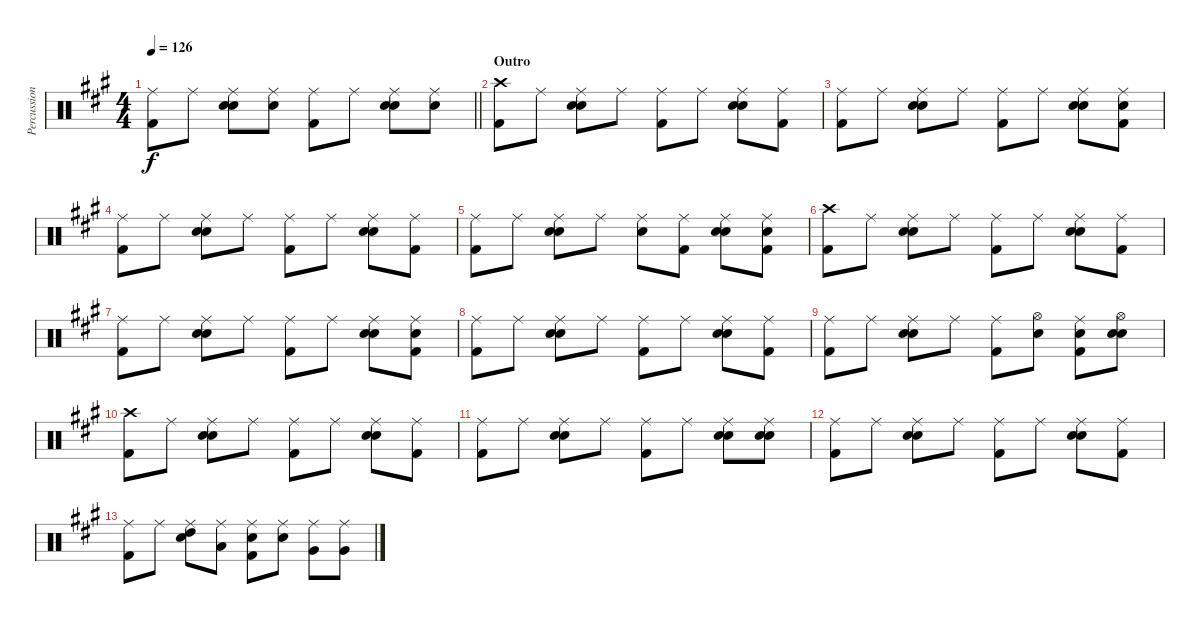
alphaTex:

\track ("Percussion" "Percussion") {instrument percussion}
\staff {score}
\articulation defaults
\ts (4 4)
\tempo 126
\clef neutral
\barLineRight lightlight
\ks a
("Ride (middle)" "Kick (hit) 2").8{dy f} "Ride (middle)".8 ("Ride (middle)" "Hand Clap (hit)" "Snare (hit) 2").8 ("Ride (middle)" "Hand Clap (hit)").8 ("Ride (middle)" "Kick (hit) 2").8 "Ride (middle)".8 ("Ride (middle)" "Hand Clap (hit)" "Snare (hit) 2").8 ("Ride (middle)" "Snare (hit) 2").8 |
\section ("" "Outro")
("Crash high (hit)" "Kick (hit) 2").8 "Ride (middle)".8 ("Ride (middle)" "Hand Clap (hit)" "Snare (hit) 2").8 "Ride (middle)".8 ("Ride (middle)" "Kick (hit) 2").8 "Ride (middle)".8 ("Ride (middle)" "Hand Clap (hit)" "Snare (hit) 2").8 ("Ride (middle)" "Kick (hit) 2").8 |
("Ride (middle)" "Kick (hit) 2").8 "Ride (middle)".8 ("Ride (middle)" "Hand Clap (hit)" "Snare (hit) 2").8 "Ride (middle)".8 ("Ride (middle)" "Kick (hit) 2").8 "Ride (middle)".8 ("Ride (middle)" "Hand Clap (hit)" "Snare (hit) 2").8 ("Ride (middle)" "Hand Clap (hit)" "Kick (hit) 2").8 |
("Ride (middle)" "Kick (hit) 2").8 "Ride (middle)".8 ("Ride (middle)" "Hand Clap (hit)" "Snare (hit) 2").8 "Ride (middle)".8 ("Ride (middle)" "Kick (hit) 2").8 "Ride (middle)".8 ("Ride (middle)" "Hand Clap (hit)" "Snare (hit) 2").8 ("Ride (middle)" "Kick (hit) 2").8 |
("Ride (middle)" "Kick (hit) 2").8 "Ride (middle)".8 ("Ride (middle)" "Hand Clap (hit)" "Snare (hit) 2").8 "Ride (middle)".8 ("Ride (middle)" "Snare (hit) 2").8 ("Ride (middle)" "Kick (hit) 2").8 ("Ride (middle)" "Hand Clap (hit)" "Snare (hit) 2").8 ("Ride (middle)" "Hand Clap (hit)" "Kick (hit) 2").8 |
("Crash high (hit)" "Kick (hit) 2").8 "Ride (middle)".8 ("Ride (middle)" "Hand Clap (hit)" "Snare (hit) 2").8 "Ride (middle)".8 ("Ride (middle)" "Kick (hit) 2").8 "Ride (middle)".8 ("Ride (middle)" "Hand Clap (hit)" "Snare (hit) 2").8 ("Ride (middle)" "Kick (hit) 2").8 |
("Ride (middle)" "Kick (hit) 2").8 "Ride (middle)".8 ("Ride (middle)" "Hand Clap (hit)" "Snare (hit) 2").8 "Ride (middle)".8 ("Ride (middle)" "Kick (hit) 2").8 "Ride (middle)".8 ("Ride (middle)" "Hand Clap (hit)" "Snare (hit) 2").8 ("Ride (middle)" "Hand Clap (hit)" "Kick (hit) 2").8 |
("Ride (middle)" "Kick (hit) 2").8 "Ride (middle)".8 ("Ride (middle)" "Hand Clap (hit)" "Snare (hit) 2").8 "Ride (middle)".8 ("Ride (middle)" "Kick (hit) 2").8 "Ride (middle)".8 ("Ride (middle)" "Hand Clap (hit)" "Snare (hit) 2").8 ("Ride (middle)" "Kick (hit) 2").8 |
("Ride (middle)" "Kick (hit) 2").8 "Ride (middle)".8 ("Ride (middle)" "Hand Clap (hit)" "Snare (hit) 2").8 "Ride (middle)".8 ("Ride (middle)" "Kick (hit) 2").8 ("Hi-Hat (open)" "Snare (hit) 2").8 ("Ride (middle)" "Hand Clap (hit)" "Kick (hit) 2").8 ("Hi-Hat (open)" "Hand Clap (hit)" "Snare (hit) 2").8 |
("Crash high (hit)" "Kick (hit) 2").8 "Ride (middle)".8 ("Ride (middle)" "Hand Clap (hit)" "Snare (hit) 2").8 "Ride (middle)".8 ("Ride (middle)" "Kick (hit) 2").8 "Ride (middle)".8 ("Ride (middle)" "Hand Clap (hit)" "Snare (hit) 2").8 ("Ride (middle)" "Kick (hit) 2").8 |
("Ride (middle)" "Kick (hit) 2").8 "Ride (middle)".8 ("Ride (middle)" "Hand Clap (hit)" "Snare (hit) 2").8 "Ride (middle)".8 ("Ride (middle)" "Kick (hit) 2").8 "Ride (middle)".8 ("Ride (middle)" "Hand Clap (hit)" "Snare (hit) 2").8 ("Ride (middle)" "Hand Clap (hit)" "Snare (hit) 2").8 |
("Ride (middle)" "Kick (hit) 2").8 "Ride (middle)".8 ("Ride (middle)" "Hand Clap (hit)" "Snare (hit) 2").8 "Ride (middle)".8 ("Ride (middle)" "Kick (hit) 2").8 "Ride (middle)".8 ("Ride (middle)" "Hand Clap (hit)" "Snare (hit) 2").8 ("Ride (middle)" "Kick (hit) 2").8 |
("Ride (middle)" "Kick (hit) 2").8 "Ride (middle)".8 ("Ride (middle)" "High Tom (hit)" "Snare (hit) 2").8 ("Ride (middle)" "Low Tom (hit)").8 ("Ride (middle)" "Snare (hit) 2" "Kick (hit) 2").8 ("Ride (middle)" "Snare (hit) 2").8 ("Ride (middle)" "Very Low Tom (hit)").8 ("Ride (middle)" "Very Low Tom (hit)").8
